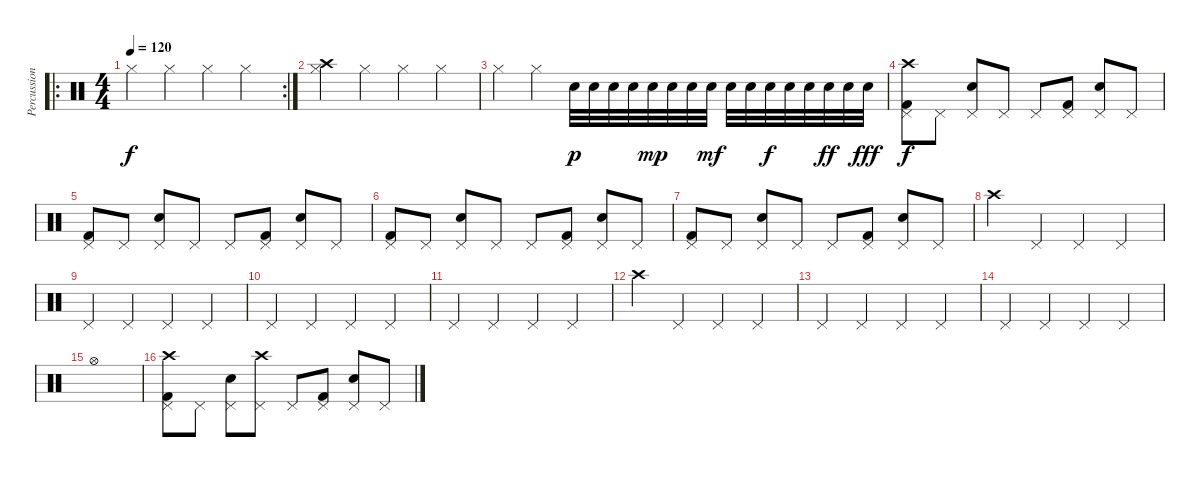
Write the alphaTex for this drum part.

\track ("Percussion" "Percussion") {instrument percussion}
\staff {score}
\articulation defaults
\ro
\rc 2
\ts (4 4)
\tempo 120
\clef neutral
\ks c "Hi-Hat (closed)".4{dy f} "Hi-Hat (closed)".4 "Hi-Hat (closed)".4 "Hi-Hat (closed)".4
|
("Hi-Hat (closed)" "Crash high (hit)").4 "Hi-Hat (closed)".4 "Hi-Hat (closed)".4 "Hi-Hat (closed)".4 |
"Hi-Hat (closed)".4 "Hi-Hat (closed)".4 "Electric Snare (hit)".32{dy p} "Electric Snare (hit)".32 "Electric Snare (hit)".32 "Electric Snare (hit)".32 "Electric Snare (hit)".32{dy mp} "Electric Snare (hit)".32 "Electric Snare (hit)".32 "Electric Snare (hit)".32{dy mf} "Electric Snare (hit)".32 "Electric Snare (hit)".32 "Electric Snare (hit)".32{dy f} "Electric Snare (hit)".32 "Electric Snare (hit)".32 "Electric Snare (hit)".32{dy ff} "Electric Snare (hit)".32 "Electric Snare (hit)".32{dy fff} |
("Crash high (hit)" "Pedal Hi-Hat (hit)" "Kick (hit) 2").8{dy f} "Pedal Hi-Hat (hit)".8 ("Pedal Hi-Hat (hit)" "Electric Snare (hit)").8 "Pedal Hi-Hat (hit)".8 "Pedal Hi-Hat (hit)".8 ("Pedal Hi-Hat (hit)" "Kick (hit) 2").8 ("Pedal Hi-Hat (hit)" "Electric Snare (hit)").8 "Pedal Hi-Hat (hit)".8 |
("Pedal Hi-Hat (hit)" "Kick (hit) 2").8 "Pedal Hi-Hat (hit)".8 ("Pedal Hi-Hat (hit)" "Electric Snare (hit)").8 "Pedal Hi-Hat (hit)".8 "Pedal Hi-Hat (hit)".8 ("Pedal Hi-Hat (hit)" "Kick (hit) 2").8 ("Pedal Hi-Hat (hit)" "Electric Snare (hit)").8 "Pedal Hi-Hat (hit)".8 |
("Pedal Hi-Hat (hit)" "Kick (hit) 2").8 "Pedal Hi-Hat (hit)".8 ("Pedal Hi-Hat (hit)" "Electric Snare (hit)").8 "Pedal Hi-Hat (hit)".8 "Pedal Hi-Hat (hit)".8 ("Pedal Hi-Hat (hit)" "Kick (hit) 2").8 ("Pedal Hi-Hat (hit)" "Electric Snare (hit)").8 "Pedal Hi-Hat (hit)".8 |
("Pedal Hi-Hat (hit)" "Kick (hit) 2").8 "Pedal Hi-Hat (hit)".8 ("Pedal Hi-Hat (hit)" "Electric Snare (hit)").8 "Pedal Hi-Hat (hit)".8 "Pedal Hi-Hat (hit)".8 ("Pedal Hi-Hat (hit)" "Kick (hit) 2").8 ("Pedal Hi-Hat (hit)" "Electric Snare (hit)").8 "Pedal Hi-Hat (hit)".8 |
"Crash high (hit)".4 "Pedal Hi-Hat (hit)".4 "Pedal Hi-Hat (hit)".4 "Pedal Hi-Hat (hit)".4 |
"Pedal Hi-Hat (hit)".4 "Pedal Hi-Hat (hit)".4 "Pedal Hi-Hat (hit)".4 "Pedal Hi-Hat (hit)".4 |
"Pedal Hi-Hat (hit)".4 "Pedal Hi-Hat (hit)".4 "Pedal Hi-Hat (hit)".4 "Pedal Hi-Hat (hit)".4 |
"Pedal Hi-Hat (hit)".4 "Pedal Hi-Hat (hit)".4 "Pedal Hi-Hat (hit)".4 "Pedal Hi-Hat (hit)".4 |
"Crash high (hit)".4 "Pedal Hi-Hat (hit)".4 "Pedal Hi-Hat (hit)".4 "Pedal Hi-Hat (hit)".4 |
"Pedal Hi-Hat (hit)".4 "Pedal Hi-Hat (hit)".4 "Pedal Hi-Hat (hit)".4 "Pedal Hi-Hat (hit)".4 |
"Pedal Hi-Hat (hit)".4 "Pedal Hi-Hat (hit)".4 "Pedal Hi-Hat (hit)".4 "Pedal Hi-Hat (hit)".4 |
"Hi-Hat (open)".1 |
("Crash high (hit)" "Pedal Hi-Hat (hit)" "Kick (hit) 2").8 "Pedal Hi-Hat (hit)".8 ("Pedal Hi-Hat (hit)" "Electric Snare (hit)").8 ("Crash high (hit)" "Pedal Hi-Hat (hit)").8 "Pedal Hi-Hat (hit)".8 ("Pedal Hi-Hat (hit)" "Kick (hit) 2").8 ("Pedal Hi-Hat (hit)" "Electric Snare (hit)").8 "Pedal Hi-Hat (hit)".8
